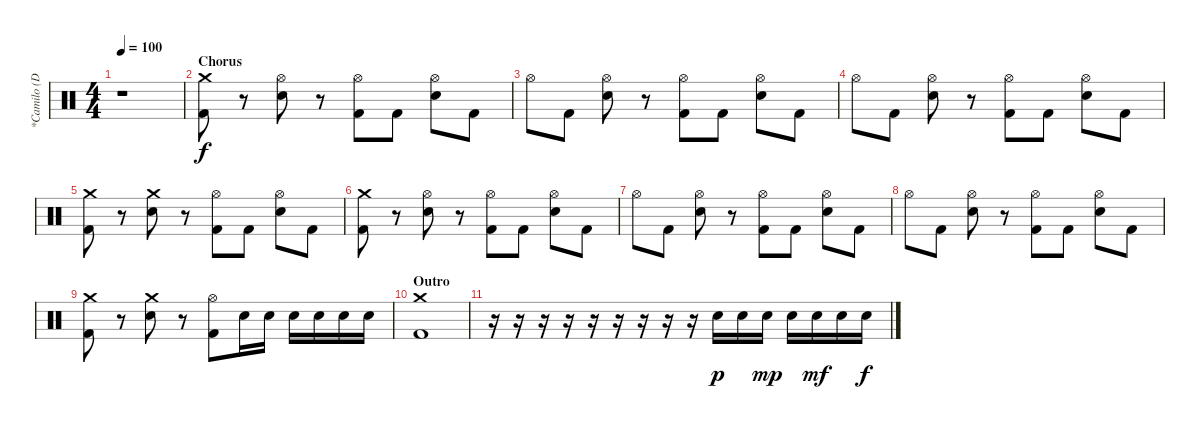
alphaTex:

\track ("*Camilo (Drums)" "*Camilo (D") {instrument percussion}
\staff {score}
\articulation defaults
\ts (4 4)
\tempo 100
\clef neutral
\ks c
r.1{dy f} |
\section ("" "Chorus")
("Crash medium (hit)" "Kick (hit) 2").8{volume 16} r.8 ("Hi-Hat (open)" "Electric Snare (hit)").8 r.8 ("Hi-Hat (open)" "Kick (hit) 2").8 "Kick (hit) 2".8 ("Hi-Hat (open)" "Electric Snare (hit)").8 "Kick (hit) 2".8 |
"Hi-Hat (open)".8 "Kick (hit) 2".8 ("Hi-Hat (open)" "Electric Snare (hit)").8 r.8 ("Hi-Hat (open)" "Kick (hit) 2").8 "Kick (hit) 2".8 ("Hi-Hat (open)" "Electric Snare (hit)").8 "Kick (hit) 2".8 |
"Hi-Hat (open)".8 "Kick (hit) 2".8 ("Hi-Hat (open)" "Electric Snare (hit)").8 r.8 ("Hi-Hat (open)" "Kick (hit) 2").8 "Kick (hit) 2".8 ("Hi-Hat (open)" "Electric Snare (hit)").8 "Kick (hit) 2".8 |
("Crash medium (hit)" "Kick (hit) 2").8 r.8 ("Crash medium (hit)" "Electric Snare (hit)").8 r.8 ("Hi-Hat (open)" "Kick (hit) 2").8 "Kick (hit) 2".8 ("Hi-Hat (open)" "Electric Snare (hit)").8 "Kick (hit) 2".8 |
("Crash medium (hit)" "Kick (hit) 2").8{volume 16} r.8 ("Hi-Hat (open)" "Electric Snare (hit)").8 r.8 ("Hi-Hat (open)" "Kick (hit) 2").8 "Kick (hit) 2".8 ("Hi-Hat (open)" "Electric Snare (hit)").8 "Kick (hit) 2".8 |
"Hi-Hat (open)".8 "Kick (hit) 2".8 ("Hi-Hat (open)" "Electric Snare (hit)").8 r.8 ("Hi-Hat (open)" "Kick (hit) 2").8 "Kick (hit) 2".8 ("Hi-Hat (open)" "Electric Snare (hit)").8 "Kick (hit) 2".8 |
"Hi-Hat (open)".8 "Kick (hit) 2".8 ("Hi-Hat (open)" "Electric Snare (hit)").8 r.8 ("Hi-Hat (open)" "Kick (hit) 2").8 "Kick (hit) 2".8 ("Hi-Hat (open)" "Electric Snare (hit)").8 "Kick (hit) 2".8 |
("Crash medium (hit)" "Kick (hit) 2").8 r.8 ("Crash medium (hit)" "Electric Snare (hit)").8 r.8 ("Hi-Hat (open)" "Kick (hit) 2").8 "Electric Snare (hit)".16 "Electric Snare (hit)".16 "Electric Snare (hit)".16 "Electric Snare (hit)".16 "Electric Snare (hit)".16 "Electric Snare (hit)".16 |
\section ("" "Outro")
("Crash medium (hit)" "Kick (hit) 2").1 |
r.16 r.16 r.16 r.16 r.16 r.16 r.16 r.16 r.16 "Electric Snare (hit)".16{dy p} "Electric Snare (hit)".16 "Electric Snare (hit)".16{dy mp} "Electric Snare (hit)".16 "Electric Snare (hit)".16{dy mf} "Electric Snare (hit)".16 "Electric Snare (hit)".16{dy f}
